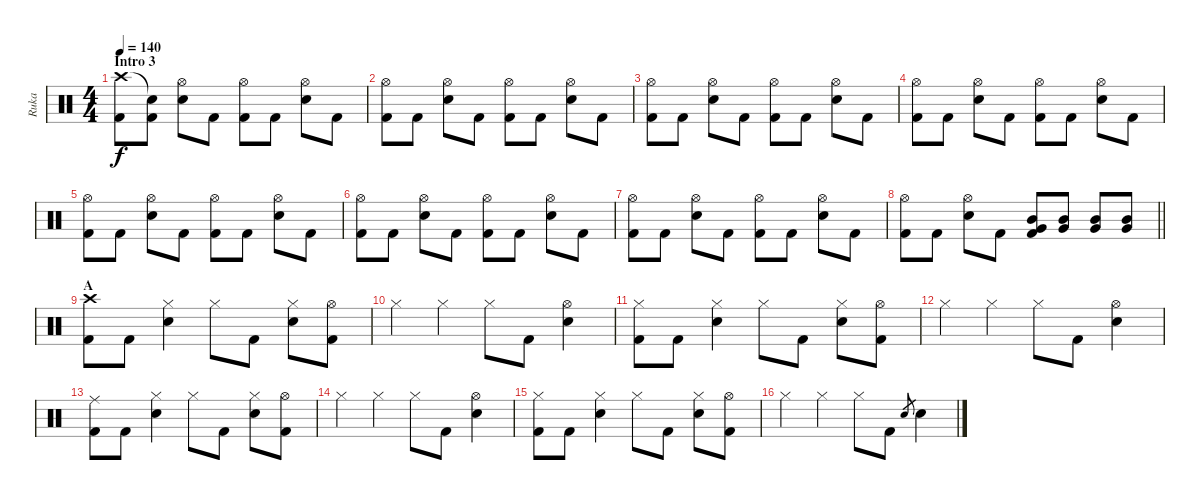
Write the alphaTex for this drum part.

\track ("Ruka" "Ruka") {instrument percussion}
\staff {score}
\articulation defaults
\ts (4 4)
\section ("" "Intro 3")
\tempo 140
\clef neutral
\ks c
("Crash high (hit)" "Kick (hit) 2").8{dy f} ("Snare (hit)"{t} "Kick (hit) 2").8 ("Hi-Hat (open)" "Snare (hit) 2").8 "Kick (hit) 2".8 ("Hi-Hat (open)" "Kick (hit) 2").8 "Kick (hit) 2".8 ("Hi-Hat (open)" "Snare (hit) 2").8 "Kick (hit) 2".8 |
("Hi-Hat (open)" "Kick (hit) 2").8 "Kick (hit) 2".8 ("Hi-Hat (open)" "Snare (hit) 2").8 "Kick (hit) 2".8 ("Hi-Hat (open)" "Kick (hit) 2").8 "Kick (hit) 2".8 ("Hi-Hat (open)" "Snare (hit) 2").8 "Kick (hit) 2".8 |
("Hi-Hat (open)" "Kick (hit) 2").8 "Kick (hit) 2".8 ("Hi-Hat (open)" "Snare (hit) 2").8 "Kick (hit) 2".8 ("Hi-Hat (open)" "Kick (hit) 2").8 "Kick (hit) 2".8 ("Hi-Hat (open)" "Snare (hit) 2").8 "Kick (hit) 2".8 |
("Hi-Hat (open)" "Kick (hit) 2").8 "Kick (hit) 2".8 ("Hi-Hat (open)" "Snare (hit) 2").8 "Kick (hit) 2".8 ("Hi-Hat (open)" "Kick (hit) 2").8 "Kick (hit) 2".8 ("Hi-Hat (open)" "Snare (hit) 2").8 "Kick (hit) 2".8 |
("Hi-Hat (open)" "Kick (hit) 2").8 "Kick (hit) 2".8 ("Hi-Hat (open)" "Snare (hit) 2").8 "Kick (hit) 2".8 ("Hi-Hat (open)" "Kick (hit) 2").8 "Kick (hit) 2".8 ("Hi-Hat (open)" "Snare (hit) 2").8 "Kick (hit) 2".8 |
("Hi-Hat (open)" "Kick (hit) 2").8 "Kick (hit) 2".8 ("Hi-Hat (open)" "Snare (hit) 2").8 "Kick (hit) 2".8 ("Hi-Hat (open)" "Kick (hit) 2").8 "Kick (hit) 2".8 ("Hi-Hat (open)" "Snare (hit) 2").8 "Kick (hit) 2".8 |
("Hi-Hat (open)" "Kick (hit) 2").8 "Kick (hit) 2".8 ("Hi-Hat (open)" "Snare (hit) 2").8 "Kick (hit) 2".8 ("Hi-Hat (open)" "Kick (hit) 2").8 "Kick (hit) 2".8 ("Hi-Hat (open)" "Snare (hit) 2").8 "Kick (hit) 2".8 |
\barLineRight lightlight
("Hi-Hat (open)" "Kick (hit) 2").8 "Kick (hit) 2".8 ("Hi-Hat (open)" "Snare (hit) 2").8 "Kick (hit) 2".8 ("Mid Tom (hit)" "Very Low Tom (hit)" "Kick (hit) 2").8 ("Mid Tom (hit)" "Very Low Tom (hit)").8 ("Mid Tom (hit)" "Very Low Tom (hit)").8 ("Mid Tom (hit)" "Very Low Tom (hit)").8 |
\section ("" "A")
("Crash high (hit)" "Kick (hit) 2").8 "Kick (hit) 2".8 ("Hi-Hat (closed)" "Snare (hit) 2").4 "Hi-Hat (closed)".8 "Kick (hit) 2".8 ("Hi-Hat (closed)" "Snare (hit) 2").8 ("Hi-Hat (open)" "Kick (hit) 2").8 |
"Hi-Hat (closed)".4 "Hi-Hat (closed)".4 "Hi-Hat (closed)".8 "Kick (hit) 2".8 ("Hi-Hat (open)" "Snare (hit) 2").4 |
("Hi-Hat (closed)" "Kick (hit) 2").8 "Kick (hit) 2".8 ("Hi-Hat (closed)" "Snare (hit) 2").4 "Hi-Hat (closed)".8 "Kick (hit) 2".8 ("Hi-Hat (closed)" "Snare (hit) 2").8 ("Hi-Hat (open)" "Kick (hit) 2").8 |
"Hi-Hat (closed)".4 "Hi-Hat (closed)".4 "Hi-Hat (closed)".8 "Kick (hit) 2".8 ("Hi-Hat (open)" "Snare (hit) 2").4 |
("Ride (middle)" "Kick (hit) 2").8 "Kick (hit) 2".8 ("Hi-Hat (closed)" "Snare (hit) 2").4 "Hi-Hat (closed)".8 "Kick (hit) 2".8 ("Hi-Hat (closed)" "Snare (hit) 2").8 ("Hi-Hat (open)" "Kick (hit) 2").8 |
"Hi-Hat (closed)".4 "Hi-Hat (closed)".4 "Hi-Hat (closed)".8 "Kick (hit) 2".8 ("Hi-Hat (open)" "Snare (hit) 2").4 |
("Hi-Hat (closed)" "Kick (hit) 2").8 "Kick (hit) 2".8 ("Hi-Hat (closed)" "Snare (hit) 2").4 "Hi-Hat (closed)".8 "Kick (hit) 2".8 ("Hi-Hat (closed)" "Snare (hit) 2").8 ("Hi-Hat (open)" "Kick (hit) 2").8 |
"Hi-Hat (closed)".4 "Hi-Hat (closed)".4 "Hi-Hat (closed)".8 "Kick (hit) 2".8 "Snare (hit) 2".8{gr} "Snare (hit) 2".4
